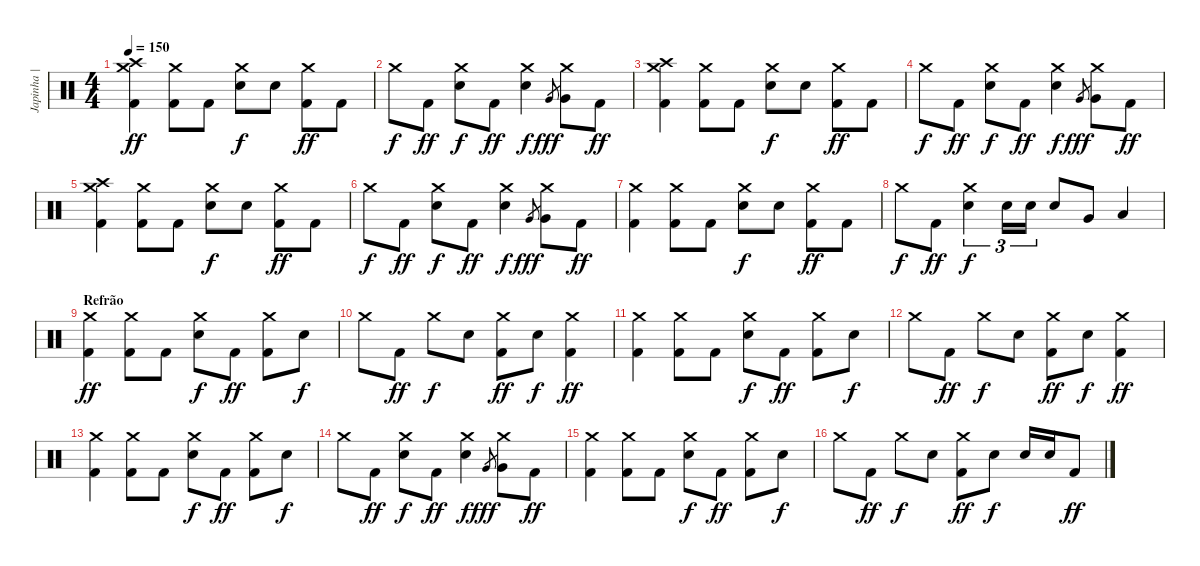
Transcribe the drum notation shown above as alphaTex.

\track ("Japinha | Bateria" "Japinha | ") {instrument percussion}
\staff {score}
\articulation defaults
\ts (4 4)
\tempo 150
\clef neutral
\ks c
("Crash medium (hit)" "Crash high (hit)" "Kick (hit) 2").4{dy ff} ("Crash medium (hit)" "Kick (hit) 2").8 "Kick (hit) 2".8 ("Crash medium (hit)" "Electric Snare (hit)").8{dy f} "Electric Snare (hit)".8 ("Crash medium (hit)" "Kick (hit) 2").8{dy ff} "Kick (hit) 2".8 |
"Crash medium (hit)".8{dy f} "Kick (hit) 2".8{dy ff} ("Crash medium (hit)" "Electric Snare (hit)").8{dy f} "Kick (hit) 2".8{dy ff} ("Crash medium (hit)" "Electric Snare (hit)").4{dy f} "Very Low Tom (hit)".8{gr dy fff} ("Crash medium (hit)" "Very Low Tom (hit)").8 "Kick (hit) 2".8{dy ff} |
("Crash medium (hit)" "Crash high (hit)" "Kick (hit) 2").4 ("Crash medium (hit)" "Kick (hit) 2").8 "Kick (hit) 2".8 ("Crash medium (hit)" "Electric Snare (hit)").8{dy f} "Electric Snare (hit)".8 ("Crash medium (hit)" "Kick (hit) 2").8{dy ff} "Kick (hit) 2".8 |
"Crash medium (hit)".8{dy f} "Kick (hit) 2".8{dy ff} ("Crash medium (hit)" "Electric Snare (hit)").8{dy f} "Kick (hit) 2".8{dy ff} ("Crash medium (hit)" "Electric Snare (hit)").4{dy f} "Very Low Tom (hit)".8{gr dy fff} ("Crash medium (hit)" "Very Low Tom (hit)").8 "Kick (hit) 2".8{dy ff} |
("Crash medium (hit)" "Crash high (hit)" "Kick (hit) 2").4 ("Crash medium (hit)" "Kick (hit) 2").8 "Kick (hit) 2".8 ("Crash medium (hit)" "Electric Snare (hit)").8{dy f} "Electric Snare (hit)".8 ("Crash medium (hit)" "Kick (hit) 2").8{dy ff} "Kick (hit) 2".8 |
"Crash medium (hit)".8{dy f} "Kick (hit) 2".8{dy ff} ("Crash medium (hit)" "Electric Snare (hit)").8{dy f} "Kick (hit) 2".8{dy ff} ("Crash medium (hit)" "Electric Snare (hit)").4{dy f} "Very Low Tom (hit)".8{gr dy fff} ("Crash medium (hit)" "Very Low Tom (hit)").8 "Kick (hit) 2".8{dy ff} |
("Crash medium (hit)" "Kick (hit) 2").4 ("Crash medium (hit)" "Kick (hit) 2").8 "Kick (hit) 2".8 ("Crash medium (hit)" "Electric Snare (hit)").8{dy f} "Electric Snare (hit)".8 ("Crash medium (hit)" "Kick (hit) 2").8{dy ff} "Kick (hit) 2".8 |
"Crash medium (hit)".8{dy f} "Kick (hit) 2".8{dy ff} ("Crash medium (hit)" "Electric Snare (hit)").4{tu (3 2) dy f} "Electric Snare (hit)".16{tu (3 2)} "Electric Snare (hit)".16{tu (3 2)} "Electric Snare (hit)".8 "Very Low Tom (hit)".8 "Low Tom (hit)".4 |
\section ("" "Refrão")
("Crash medium (hit)" "Kick (hit) 2").4{dy ff} ("Crash medium (hit)" "Kick (hit) 2").8 "Kick (hit) 2".8 ("Crash medium (hit)" "Electric Snare (hit)").8{dy f} "Kick (hit) 2".8{dy ff} ("Crash medium (hit)" "Kick (hit) 2").8 "Electric Snare (hit)".8{dy f} |
"Crash medium (hit)".8 "Kick (hit) 2".8{dy ff} "Crash medium (hit)".8{dy f} "Electric Snare (hit)".8 ("Crash medium (hit)" "Kick (hit) 2").8{dy ff} "Electric Snare (hit)".8{dy f} ("Crash medium (hit)" "Kick (hit) 2").4{dy ff} |
("Crash medium (hit)" "Kick (hit) 2").4 ("Crash medium (hit)" "Kick (hit) 2").8 "Kick (hit) 2".8 ("Crash medium (hit)" "Electric Snare (hit)").8{dy f} "Kick (hit) 2".8{dy ff} ("Crash medium (hit)" "Kick (hit) 2").8 "Electric Snare (hit)".8{dy f} |
"Crash medium (hit)".8 "Kick (hit) 2".8{dy ff} "Crash medium (hit)".8{dy f} "Electric Snare (hit)".8 ("Crash medium (hit)" "Kick (hit) 2").8{dy ff} "Electric Snare (hit)".8{dy f} ("Crash medium (hit)" "Kick (hit) 2").4{dy ff} |
("Crash medium (hit)" "Kick (hit) 2").4 ("Crash medium (hit)" "Kick (hit) 2").8 "Kick (hit) 2".8 ("Crash medium (hit)" "Electric Snare (hit)").8{dy f} "Kick (hit) 2".8{dy ff} ("Crash medium (hit)" "Kick (hit) 2").8 "Electric Snare (hit)".8{dy f} |
"Crash medium (hit)".8 "Kick (hit) 2".8{dy ff} ("Crash medium (hit)" "Electric Snare (hit)").8{dy f} "Kick (hit) 2".8{dy ff} ("Crash medium (hit)" "Electric Snare (hit)").4{dy f} "Very Low Tom (hit)".8{gr dy fff} ("Crash medium (hit)" "Very Low Tom (hit)").8 "Kick (hit) 2".8{dy ff} |
("Crash medium (hit)" "Kick (hit) 2").4 ("Crash medium (hit)" "Kick (hit) 2").8 "Kick (hit) 2".8 ("Crash medium (hit)" "Electric Snare (hit)").8{dy f} "Kick (hit) 2".8{dy ff} ("Crash medium (hit)" "Kick (hit) 2").8 "Electric Snare (hit)".8{dy f} |
"Crash medium (hit)".8 "Kick (hit) 2".8{dy ff} "Crash medium (hit)".8{dy f} "Electric Snare (hit)".8 ("Crash medium (hit)" "Kick (hit) 2").8{dy ff} "Electric Snare (hit)".8{dy f} "Electric Snare (hit)".16 "Electric Snare (hit)".16 "Kick (hit) 2".8{dy ff}
